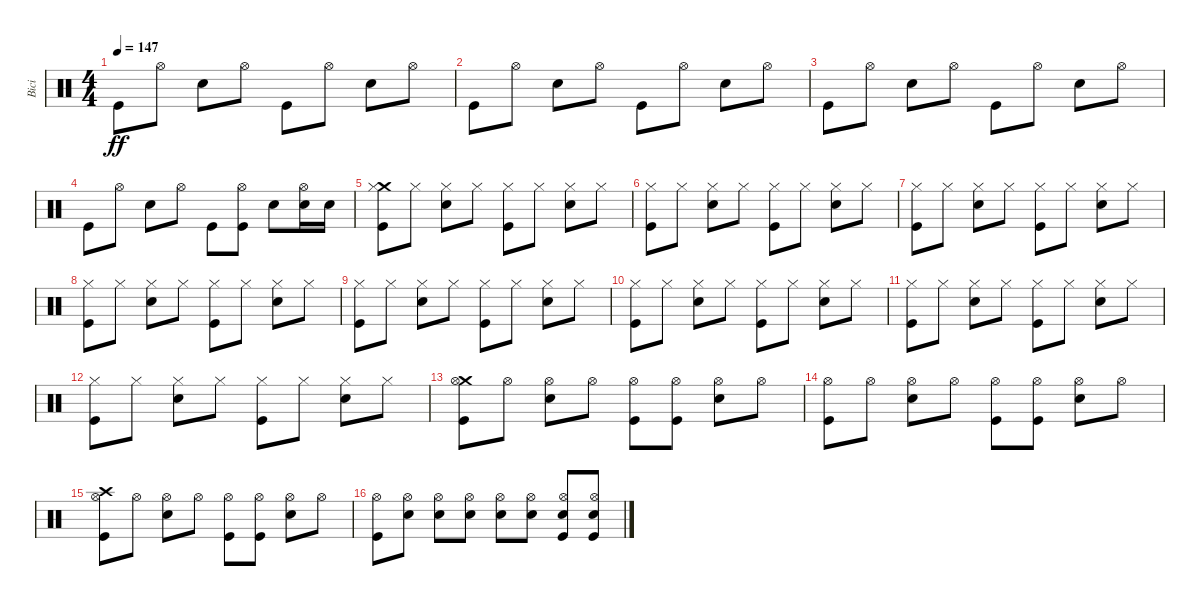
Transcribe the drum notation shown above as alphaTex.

\track ("Bici" "Bici") {instrument percussion}
\staff {score}
\articulation defaults
\ts (4 4)
\tempo 147
\clef neutral
\ks c "Kick (hit)".8{dy ff} "Hi-Hat (open)".8 "Snare (hit) 2".8 "Hi-Hat (open)".8 "Kick (hit)".8 "Hi-Hat (open)".8 "Snare (hit) 2".8 "Hi-Hat (open)".8
|
"Kick (hit)".8 "Hi-Hat (open)".8 "Snare (hit) 2".8 "Hi-Hat (open)".8 "Kick (hit)".8 "Hi-Hat (open)".8 "Snare (hit) 2".8 "Hi-Hat (open)".8 |
"Kick (hit)".8 "Hi-Hat (open)".8 "Snare (hit) 2".8 "Hi-Hat (open)".8 "Kick (hit)".8 "Hi-Hat (open)".8 "Snare (hit) 2".8 "Hi-Hat (open)".8 |
"Kick (hit)".8 "Hi-Hat (open)".8 "Snare (hit) 2".8 "Hi-Hat (open)".8 "Kick (hit)".8 ("Kick (hit)" "Hi-Hat (open)").8 "Snare (hit) 2".8 ("Snare (hit) 2" "Hi-Hat (open)").16 "Snare (hit) 2".16 |
("Kick (hit)" "Crash medium (hit)" "Hi-Hat (closed)").8 "Hi-Hat (closed)".8 ("Snare (hit) 2" "Hi-Hat (closed)").8 "Hi-Hat (closed)".8 ("Kick (hit)" "Hi-Hat (closed)").8 "Hi-Hat (closed)".8 ("Snare (hit) 2" "Hi-Hat (closed)").8 "Hi-Hat (closed)".8 |
("Kick (hit)" "Hi-Hat (closed)").8 "Hi-Hat (closed)".8 ("Snare (hit) 2" "Hi-Hat (closed)").8 "Hi-Hat (closed)".8 ("Kick (hit)" "Hi-Hat (closed)").8 "Hi-Hat (closed)".8 ("Snare (hit) 2" "Hi-Hat (closed)").8 "Hi-Hat (closed)".8 |
("Kick (hit)" "Hi-Hat (closed)").8 "Hi-Hat (closed)".8 ("Snare (hit) 2" "Hi-Hat (closed)").8 "Hi-Hat (closed)".8 ("Kick (hit)" "Hi-Hat (closed)").8 "Hi-Hat (closed)".8 ("Snare (hit) 2" "Hi-Hat (closed)").8 "Hi-Hat (closed)".8 |
("Kick (hit)" "Hi-Hat (closed)").8 "Hi-Hat (closed)".8 ("Snare (hit) 2" "Hi-Hat (closed)").8 "Hi-Hat (closed)".8 ("Kick (hit)" "Hi-Hat (closed)").8 "Hi-Hat (closed)".8 ("Snare (hit) 2" "Hi-Hat (closed)").8 "Hi-Hat (closed)".8 |
("Kick (hit)" "Hi-Hat (closed)").8 "Hi-Hat (closed)".8 ("Snare (hit) 2" "Hi-Hat (closed)").8 "Hi-Hat (closed)".8 ("Kick (hit)" "Hi-Hat (closed)").8 "Hi-Hat (closed)".8 ("Snare (hit) 2" "Hi-Hat (closed)").8 "Hi-Hat (closed)".8 |
("Kick (hit)" "Hi-Hat (closed)").8 "Hi-Hat (closed)".8 ("Snare (hit) 2" "Hi-Hat (closed)").8 "Hi-Hat (closed)".8 ("Kick (hit)" "Hi-Hat (closed)").8 "Hi-Hat (closed)".8 ("Snare (hit) 2" "Hi-Hat (closed)").8 "Hi-Hat (closed)".8 |
("Kick (hit)" "Hi-Hat (closed)").8 "Hi-Hat (closed)".8 ("Snare (hit) 2" "Hi-Hat (closed)").8 "Hi-Hat (closed)".8 ("Kick (hit)" "Hi-Hat (closed)").8 "Hi-Hat (closed)".8 ("Snare (hit) 2" "Hi-Hat (closed)").8 "Hi-Hat (closed)".8 |
("Kick (hit)" "Hi-Hat (closed)").8 "Hi-Hat (closed)".8 ("Snare (hit) 2" "Hi-Hat (closed)").8 "Hi-Hat (closed)".8 ("Kick (hit)" "Hi-Hat (closed)").8 "Hi-Hat (closed)".8 ("Snare (hit) 2" "Hi-Hat (closed)").8 "Hi-Hat (closed)".8 |
("Kick (hit)" "Crash medium (hit)" "Hi-Hat (open)").8 "Hi-Hat (open)".8 ("Snare (hit) 2" "Hi-Hat (open)").8 "Hi-Hat (open)".8 ("Kick (hit)" "Hi-Hat (open)").8 ("Kick (hit)" "Hi-Hat (open)").8 ("Snare (hit) 2" "Hi-Hat (open)").8 "Hi-Hat (open)".8 |
("Kick (hit)" "Hi-Hat (open)").8 "Hi-Hat (open)".8 ("Snare (hit) 2" "Hi-Hat (open)").8 "Hi-Hat (open)".8 ("Kick (hit)" "Hi-Hat (open)").8 ("Kick (hit)" "Hi-Hat (open)").8 ("Snare (hit) 2" "Hi-Hat (open)").8 "Hi-Hat (open)".8 |
("Kick (hit)" "Crash high (hit)" "Hi-Hat (open)").8 "Hi-Hat (open)".8 ("Snare (hit) 2" "Hi-Hat (open)").8 "Hi-Hat (open)".8 ("Kick (hit)" "Hi-Hat (open)").8 ("Kick (hit)" "Hi-Hat (open)").8 ("Snare (hit) 2" "Hi-Hat (open)").8 "Hi-Hat (open)".8 |
("Kick (hit)" "Hi-Hat (open)").8 ("Snare (hit) 2" "Hi-Hat (open)").8 ("Snare (hit) 2" "Hi-Hat (open)").8 ("Snare (hit) 2" "Hi-Hat (open)").8 ("Snare (hit) 2" "Hi-Hat (open)").8 ("Snare (hit) 2" "Hi-Hat (open)").8 ("Kick (hit)" "Snare (hit) 2" "Hi-Hat (open)").8 ("Kick (hit)" "Snare (hit) 2" "Hi-Hat (open)").8
